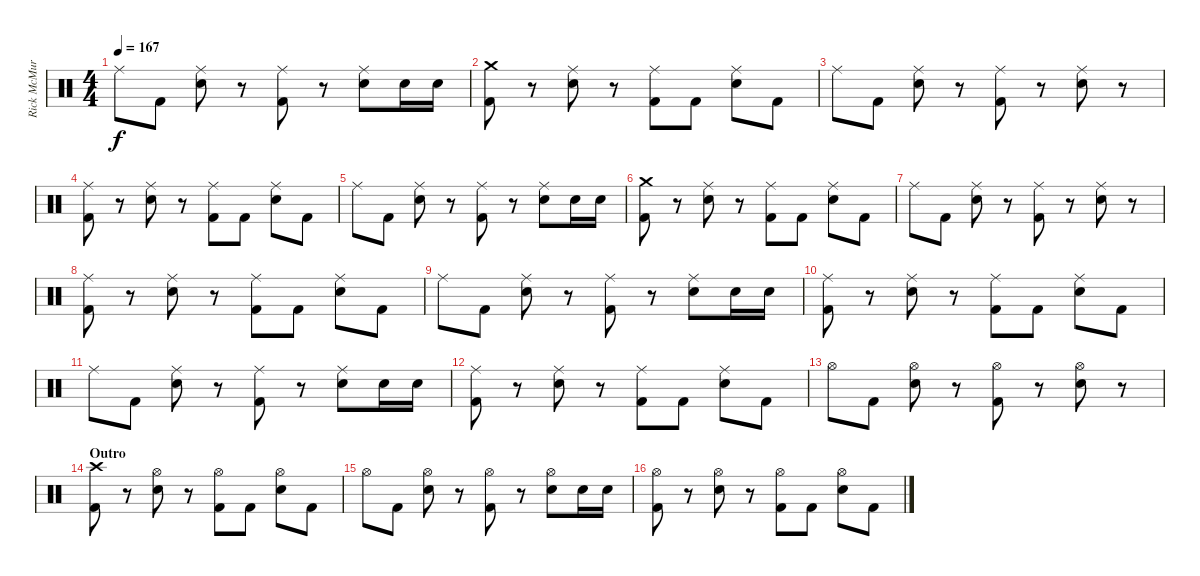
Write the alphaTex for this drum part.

\track ("Rick McMurray" "Rick McMur") {instrument percussion}
\staff {score}
\articulation defaults
\ts (4 4)
\tempo 167
\clef neutral
\ks c "Ride (middle)".8{dy f} "Kick (hit) 2".8
("Ride (middle)" "Electric Snare (hit)").8 r.8 ("Ride (middle)" "Kick (hit) 2").8 r.8 ("Ride (middle)" "Electric Snare (hit)").8 "Electric Snare (hit)".16 "Electric Snare (hit)".16 |
("Crash medium (hit)" "Kick (hit) 2").8 r.8 ("Ride (middle)" "Electric Snare (hit)").8 r.8 ("Ride (middle)" "Kick (hit) 2").8 "Kick (hit) 2".8 ("Ride (middle)" "Electric Snare (hit)").8 "Kick (hit) 2".8 |
"Ride (middle)".8 "Kick (hit) 2".8 ("Ride (middle)" "Electric Snare (hit)").8 r.8 ("Ride (middle)" "Kick (hit) 2").8 r.8 ("Ride (middle)" "Electric Snare (hit)").8 r.8 |
("Ride (middle)" "Kick (hit) 2").8 r.8 ("Ride (middle)" "Electric Snare (hit)").8 r.8 ("Ride (middle)" "Kick (hit) 2").8 "Kick (hit) 2".8 ("Ride (middle)" "Electric Snare (hit)").8 "Kick (hit) 2".8 |
"Ride (middle)".8 "Kick (hit) 2".8 ("Ride (middle)" "Electric Snare (hit)").8 r.8 ("Ride (middle)" "Kick (hit) 2").8 r.8 ("Ride (middle)" "Electric Snare (hit)").8 "Electric Snare (hit)".16 "Electric Snare (hit)".16 |
("Crash medium (hit)" "Kick (hit) 2").8 r.8 ("Ride (middle)" "Electric Snare (hit)").8 r.8 ("Ride (middle)" "Kick (hit) 2").8 "Kick (hit) 2".8 ("Ride (middle)" "Electric Snare (hit)").8 "Kick (hit) 2".8 |
"Ride (middle)".8 "Kick (hit) 2".8 ("Ride (middle)" "Electric Snare (hit)").8 r.8 ("Ride (middle)" "Kick (hit) 2").8 r.8 ("Ride (middle)" "Electric Snare (hit)").8 r.8 |
("Ride (middle)" "Kick (hit) 2").8 r.8 ("Ride (middle)" "Electric Snare (hit)").8 r.8 ("Ride (middle)" "Kick (hit) 2").8 "Kick (hit) 2".8 ("Ride (middle)" "Electric Snare (hit)").8 "Kick (hit) 2".8 |
"Ride (middle)".8 "Kick (hit) 2".8 ("Ride (middle)" "Electric Snare (hit)").8 r.8 ("Ride (middle)" "Kick (hit) 2").8 r.8 ("Ride (middle)" "Electric Snare (hit)").8 "Electric Snare (hit)".16 "Electric Snare (hit)".16 |
("Ride (middle)" "Kick (hit) 2").8 r.8 ("Ride (middle)" "Electric Snare (hit)").8 r.8 ("Ride (middle)" "Kick (hit) 2").8 "Kick (hit) 2".8 ("Ride (middle)" "Electric Snare (hit)").8 "Kick (hit) 2".8 |
"Ride (middle)".8 "Kick (hit) 2".8 ("Ride (middle)" "Electric Snare (hit)").8 r.8 ("Ride (middle)" "Kick (hit) 2").8 r.8 ("Ride (middle)" "Electric Snare (hit)").8 "Electric Snare (hit)".16 "Electric Snare (hit)".16 |
("Ride (middle)" "Kick (hit) 2").8 r.8 ("Ride (middle)" "Electric Snare (hit)").8 r.8 ("Ride (middle)" "Kick (hit) 2").8 "Kick (hit) 2".8 ("Ride (middle)" "Electric Snare (hit)").8 "Kick (hit) 2".8 |
"Hi-Hat (open)".8 "Kick (hit) 2".8 ("Hi-Hat (open)" "Electric Snare (hit)").8 r.8 ("Hi-Hat (open)" "Kick (hit) 2").8 r.8 ("Hi-Hat (open)" "Electric Snare (hit)").8 r.8 |
\section ("" "Outro")
("Crash high (hit)" "Kick (hit) 2").8 r.8 ("Hi-Hat (open)" "Electric Snare (hit)").8 r.8 ("Hi-Hat (open)" "Kick (hit) 2").8 "Kick (hit) 2".8 ("Hi-Hat (open)" "Electric Snare (hit)").8 "Kick (hit) 2".8 |
"Hi-Hat (open)".8 "Kick (hit) 2".8 ("Hi-Hat (open)" "Electric Snare (hit)").8 r.8 ("Hi-Hat (open)" "Kick (hit) 2").8 r.8 ("Hi-Hat (open)" "Electric Snare (hit)").8 "Electric Snare (hit)".16 "Electric Snare (hit)".16 |
("Hi-Hat (open)" "Kick (hit) 2").8 r.8 ("Hi-Hat (open)" "Electric Snare (hit)").8 r.8 ("Hi-Hat (open)" "Kick (hit) 2").8 "Kick (hit) 2".8 ("Hi-Hat (open)" "Electric Snare (hit)").8 "Kick (hit) 2".8
